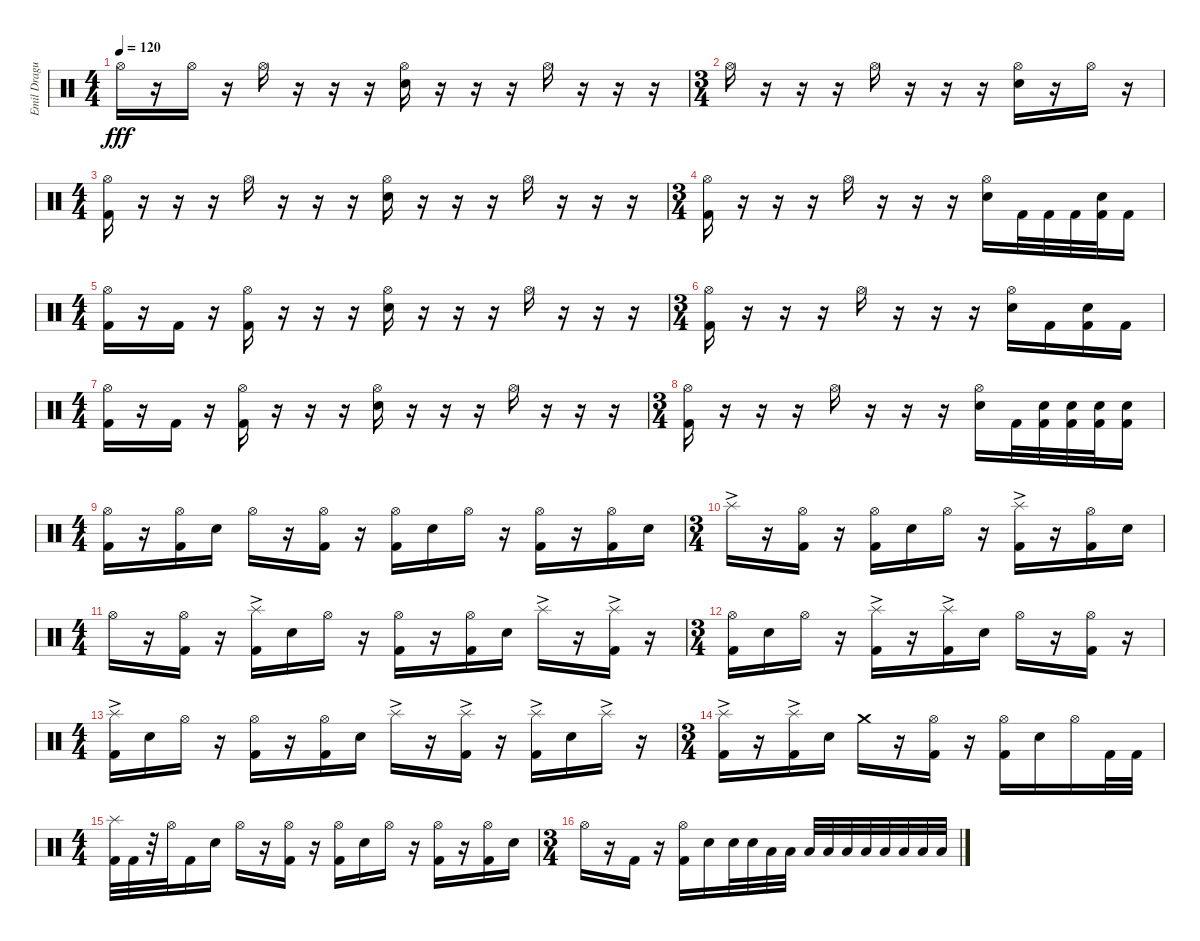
\track ("Emil Dragutinovic" "Emil Dragu") {instrument percussion}
\staff {score}
\articulation defaults
\ts (4 4)
\tempo 120
\clef neutral
\ks c "Hi-Hat (open)".16{dy fff}
r.16 "Hi-Hat (open)".16 r.16 "Hi-Hat (open)".16 r.16 r.16 r.16 ("Hi-Hat (open)" "Electric Snare (hit)").16 r.16 r.16 r.16 "Hi-Hat (open)".16 r.16 r.16 r.16 |
\ts (3 4)
"Hi-Hat (open)".16 r.16 r.16 r.16 "Hi-Hat (open)".16 r.16 r.16 r.16 ("Hi-Hat (open)" "Electric Snare (hit)").16 r.16 "Hi-Hat (open)".16 r.16 |
\ts (4 4)
("Hi-Hat (open)" "Kick (hit) 2").16 r.16 r.16 r.16 "Hi-Hat (open)".16 r.16 r.16 r.16 ("Hi-Hat (open)" "Electric Snare (hit)").16 r.16 r.16 r.16 "Hi-Hat (open)".16 r.16 r.16 r.16 |
\ts (3 4)
("Hi-Hat (open)" "Kick (hit) 2").16 r.16 r.16 r.16 "Hi-Hat (open)".16 r.16 r.16 r.16 ("Hi-Hat (open)" "Electric Snare (hit)").16 "Kick (hit) 2".32 "Kick (hit) 2".32 "Kick (hit) 2".32 ("Electric Snare (hit)" "Kick (hit) 2").32 "Kick (hit) 2".16 |
\ts (4 4)
("Hi-Hat (open)" "Kick (hit) 2").16 r.16 "Kick (hit) 2".16 r.16 ("Hi-Hat (open)" "Kick (hit) 2").16 r.16 r.16 r.16 ("Hi-Hat (open)" "Electric Snare (hit)").16 r.16 r.16 r.16 "Hi-Hat (open)".16 r.16 r.16 r.16 |
\ts (3 4)
("Hi-Hat (open)" "Kick (hit) 2").16 r.16 r.16 r.16 "Hi-Hat (open)".16 r.16 r.16 r.16 ("Hi-Hat (open)" "Electric Snare (hit)").16 "Kick (hit) 2".16 ("Electric Snare (hit)" "Kick (hit) 2").16 "Kick (hit) 2".16 |
\ts (4 4)
("Hi-Hat (open)" "Kick (hit) 2").16 r.16 "Kick (hit) 2".16 r.16 ("Hi-Hat (open)" "Kick (hit) 2").16 r.16 r.16 r.16 ("Hi-Hat (open)" "Electric Snare (hit)").16 r.16 r.16 r.16 "Hi-Hat (open)".16 r.16 r.16 r.16 |
\ts (3 4)
("Hi-Hat (open)" "Kick (hit) 2").16 r.16 r.16 r.16 "Hi-Hat (open)".16 r.16 r.16 r.16 ("Hi-Hat (open)" "Electric Snare (hit)").16 "Kick (hit) 2".32 ("Electric Snare (hit)" "Kick (hit) 2").32 ("Electric Snare (hit)" "Kick (hit) 2").32 ("Electric Snare (hit)" "Kick (hit) 2").32 ("Electric Snare (hit)" "Kick (hit) 2").16 |
\ts (4 4)
("Hi-Hat (open)" "Kick (hit) 2").16 r.16 ("Hi-Hat (open)" "Kick (hit) 2").16 "Electric Snare (hit)".16 "Hi-Hat (open)".16 r.16 ("Hi-Hat (open)" "Kick (hit) 2").16 r.16 ("Hi-Hat (open)" "Kick (hit) 2").16 "Electric Snare (hit)".16 "Hi-Hat (open)".16 r.16 ("Hi-Hat (open)" "Kick (hit) 2").16 r.16 ("Hi-Hat (open)" "Kick (hit) 2").16 "Electric Snare (hit)".16 |
\ts (3 4)
"Splash (hit)"{ac}.16 r.16 ("Hi-Hat (open)" "Kick (hit) 2").16 r.16 ("Hi-Hat (open)" "Kick (hit) 2").16 "Electric Snare (hit)".16 "Hi-Hat (open)".16 r.16 ("Splash (hit)"{ac} "Kick (hit) 2").16 r.16 ("Hi-Hat (open)" "Kick (hit) 2").16 "Electric Snare (hit)".16 |
\ts (4 4)
"Hi-Hat (open)".16 r.16 ("Hi-Hat (open)" "Kick (hit) 2").16 r.16 ("Splash (hit)"{ac} "Kick (hit) 2").16 "Electric Snare (hit)".16 "Hi-Hat (open)".16 r.16 ("Hi-Hat (open)" "Kick (hit) 2").16 r.16 ("Hi-Hat (open)" "Kick (hit) 2").16 "Electric Snare (hit)".16 "Splash (hit)"{ac}.16 r.16 ("Splash (hit)"{ac} "Kick (hit) 2").16 r.16 |
\ts (3 4)
("Hi-Hat (open)" "Kick (hit) 2").16 "Electric Snare (hit)".16 "Hi-Hat (open)".16 r.16 ("Splash (hit)"{ac} "Kick (hit) 2").16 r.16 ("Splash (hit)"{ac} "Kick (hit) 2").16 "Electric Snare (hit)".16 "Hi-Hat (open)".16 r.16 ("Hi-Hat (open)" "Kick (hit) 2").16 r.16 |
\ts (4 4)
("Splash (hit)"{ac} "Kick (hit) 2").16 "Electric Snare (hit)".16 "Hi-Hat (open)".16 r.16 ("Hi-Hat (open)" "Kick (hit) 2").16 r.16 ("Hi-Hat (open)" "Kick (hit) 2").16 "Electric Snare (hit)".16 "Splash (hit)"{ac}.16 r.16 ("Splash (hit)"{ac} "Kick (hit) 2").16 r.16 ("Splash (hit)"{ac} "Kick (hit) 2").16 "Electric Snare (hit)".16 "Splash (hit)"{ac}.16 r.16 |
\ts (3 4)
("Splash (hit)"{ac} "Kick (hit) 2").16 r.16 ("Splash (hit)"{ac} "Kick (hit) 2").16 "Electric Snare (hit)".16 "Crash medium (hit)".16 r.16 ("Hi-Hat (open)" "Kick (hit) 2").16 r.16 ("Hi-Hat (open)" "Kick (hit) 2").16 "Electric Snare (hit)".16 "Hi-Hat (open)".16 "Kick (hit) 2".32 "Kick (hit) 2".32 |
\ts (4 4)
("Splash (hit)" "Kick (hit) 2").32 "Kick (hit) 2".32 r.32 "Hi-Hat (open)".32 "Kick (hit) 2".16 "Electric Snare (hit)".16 "Hi-Hat (open)".16 r.16 ("Hi-Hat (open)" "Kick (hit) 2").16 r.16 ("Hi-Hat (open)" "Kick (hit) 2").16 "Electric Snare (hit)".16 "Hi-Hat (open)".16 r.16 ("Hi-Hat (open)" "Kick (hit) 2").16 r.16 ("Hi-Hat (open)" "Kick (hit) 2").16 "Electric Snare (hit)".16 |
\ts (3 4)
"Hi-Hat (open)".16 r.16 "Kick (hit) 2".16 r.16 ("Hi-Hat (open)" "Kick (hit) 2").16 "Electric Snare (hit)".16 "Electric Snare (hit)".32 "Electric Snare (hit)".32 "Low Tom (hit)".32 "Low Tom (hit)".32 "Low Tom (hit)".32 "Low Tom (hit)".32 "Low Floor Tom (hit)".32 "Low Floor Tom (hit)".32 "Low Floor Tom (hit)".32 "Low Floor Tom (hit)".32 "Low Floor Tom (hit)".32 "Low Floor Tom (hit)".32
